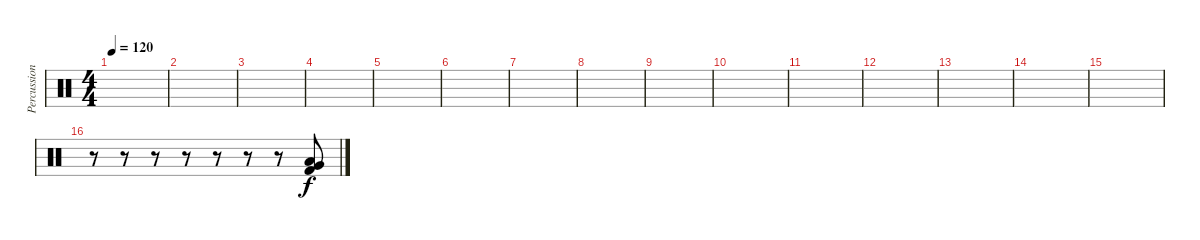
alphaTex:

\track ("Percussion" "Percussion") {instrument percussion}
\staff {score}
\articulation defaults
\ts (4 4)
\tempo 120
\clef neutral
\ks c
|
|
|
|
|
|
|
|
|
|
|
|
|
|
|
r.8 r.8 r.8 r.8 r.8 r.8 r.8 ("Very Low Tom (hit)" "Low Floor Tom (hit)" "Kick (hit) 2").8
